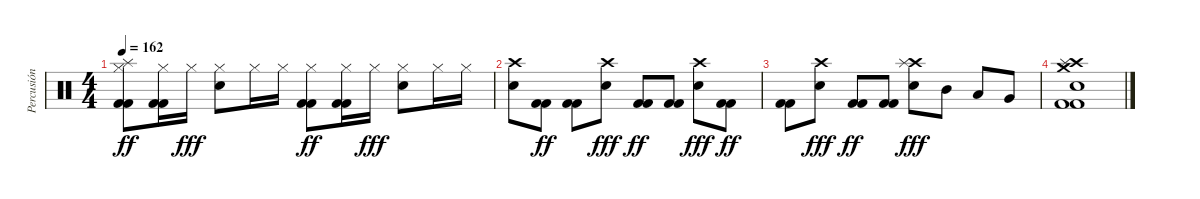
\track ("Percusión" "Percusión") {instrument percussion}
\staff {score}
\articulation defaults
\ts (4 4)
\tempo 162
\clef neutral
\ks c
("Splash (hit)" "Hi-Hat (closed)" "Kick (hit) 2" "Kick (hit) 2").8{dy ff} ("Hi-Hat (closed)" "Kick (hit) 2" "Kick (hit) 2").16 "Hi-Hat (closed)".16{dy fff} ("Hi-Hat (closed)" "Snare (hit) 2").8 "Hi-Hat (closed)".16 "Hi-Hat (closed)".16 ("Hi-Hat (closed)" "Kick (hit) 2" "Kick (hit) 2").8{dy ff} ("Hi-Hat (closed)" "Kick (hit) 2" "Kick (hit) 2").16 "Hi-Hat (closed)".16{dy fff} ("Hi-Hat (closed)" "Snare (hit) 2").8 "Hi-Hat (closed)".16 "Hi-Hat (closed)".16 |
("Crash high (hit)" "Snare (hit) 2").8 ("Kick (hit) 2" "Kick (hit) 2").8{dy ff} ("Kick (hit) 2" "Kick (hit) 2").8 ("Crash high (hit)" "Snare (hit) 2").8{dy fff} ("Kick (hit) 2" "Kick (hit) 2").8{dy ff} ("Kick (hit) 2" "Kick (hit) 2").8 ("Crash high (hit)" "Snare (hit) 2").8{dy fff} ("Kick (hit) 2" "Kick (hit) 2").8{dy ff} |
("Kick (hit) 2" "Kick (hit) 2").8 ("Crash high (hit)" "Snare (hit) 2").8{dy fff} ("Kick (hit) 2" "Kick (hit) 2").8{dy ff} ("Kick (hit) 2" "Kick (hit) 2").8 ("Crash high (hit)" "Splash (hit)" "Snare (hit) 2").8{dy fff} "Mid Tom (hit)".8 "Low Tom (hit)".8 "Very Low Tom (hit)".8 |
("Crash medium (hit)" "Crash high (hit)" "Splash (hit)" "Kick (hit) 2" "Kick (hit) 2" "Snare (hit) 2").1
